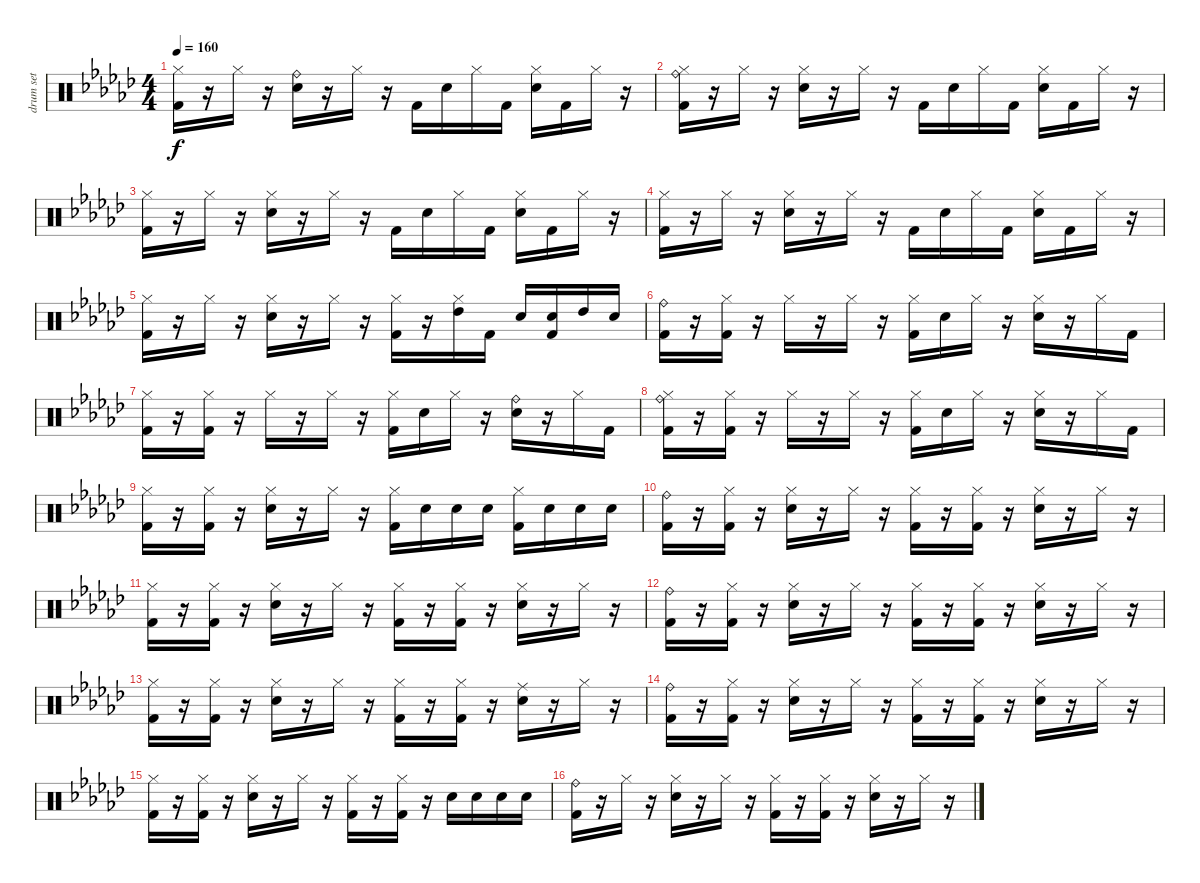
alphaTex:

\track ("drum set" "drum set") {instrument percussion}
\staff {score}
\articulation defaults
\ts (4 4)
\tempo 160
\clef neutral
\ks gb
("Hi-Hat (closed)" "Kick (hit) 2").16{dy f} r.16 "Hi-Hat (closed)".16 r.16 ("Ride (bell)" "Snare (hit) 2").16 r.16 "Hi-Hat (closed)".16 r.16 "Kick (hit) 2".16 "Snare (hit) 2".16 "Hi-Hat (closed)".16 "Kick (hit) 2".16 ("Hi-Hat (closed)" "Snare (hit) 2").16 "Kick (hit) 2".16 "Hi-Hat (closed)".16 r.16 |
("Hi-Hat (closed)" "Kick (hit) 2" "Ride (bell)").16 r.16 "Hi-Hat (closed)".16 r.16 ("Hi-Hat (closed)" "Snare (hit) 2").16 r.16 "Hi-Hat (closed)".16 r.16 "Kick (hit) 2".16 "Snare (hit) 2".16 "Hi-Hat (closed)".16 "Kick (hit) 2".16 ("Hi-Hat (closed)" "Snare (hit) 2").16 "Kick (hit) 2".16 "Hi-Hat (closed)".16 r.16 |
("Hi-Hat (closed)" "Kick (hit) 2").16 r.16 "Hi-Hat (closed)".16 r.16 ("Hi-Hat (closed)" "Snare (hit) 2").16 r.16 "Hi-Hat (closed)".16 r.16 "Kick (hit) 2".16 "Snare (hit) 2".16 "Hi-Hat (closed)".16 "Kick (hit) 2".16 ("Hi-Hat (closed)" "Snare (hit) 2").16 "Kick (hit) 2".16 "Hi-Hat (closed)".16 r.16 |
("Hi-Hat (closed)" "Kick (hit) 2").16 r.16 "Hi-Hat (closed)".16 r.16 ("Hi-Hat (closed)" "Snare (hit) 2").16 r.16 "Hi-Hat (closed)".16 r.16 "Kick (hit) 2".16 "Snare (hit) 2".16 "Hi-Hat (closed)".16 "Kick (hit) 2".16 ("Hi-Hat (closed)" "Snare (hit) 2").16 "Kick (hit) 2".16 "Hi-Hat (closed)".16 r.16 |
("Hi-Hat (closed)" "Kick (hit) 2").16 r.16 "Hi-Hat (closed)".16 r.16 ("Hi-Hat (closed)" "Snare (hit) 2").16 r.16 "Hi-Hat (closed)".16 r.16 ("Hi-Hat (closed)" "Kick (hit) 2").16 r.16 ("Hi-Hat (closed)" "High Tom (hit)").16 "Kick (hit) 2".16 "Snare (hit) 2".16 ("Snare (hit) 2" "Kick (hit) 2").16 "High Tom (hit)".16 "Snare (hit) 2".16 |
("Ride (bell)" "Kick (hit) 2").16 r.16 ("Hi-Hat (closed)" "Kick (hit) 2").16 r.16 "Hi-Hat (closed)".16 r.16 "Hi-Hat (closed)".16 r.16 ("Hi-Hat (closed)" "Kick (hit) 2").16 "Snare (hit) 2".16 "Hi-Hat (closed)".16 r.16 ("Hi-Hat (closed)" "Snare (hit) 2").16 r.16 "Hi-Hat (closed)".16 "Kick (hit) 2".16 |
("Hi-Hat (closed)" "Kick (hit) 2").16 r.16 ("Hi-Hat (closed)" "Kick (hit) 2").16 r.16 "Hi-Hat (closed)".16 r.16 "Hi-Hat (closed)".16 r.16 ("Hi-Hat (closed)" "Kick (hit) 2").16 "Snare (hit) 2".16 "Hi-Hat (closed)".16 r.16 ("Ride (bell)" "Snare (hit) 2").16 r.16 "Hi-Hat (closed)".16 "Kick (hit) 2".16 |
("Hi-Hat (closed)" "Kick (hit) 2" "Ride (bell)").16 r.16 ("Hi-Hat (closed)" "Kick (hit) 2").16 r.16 "Hi-Hat (closed)".16 r.16 "Hi-Hat (closed)".16 r.16 ("Hi-Hat (closed)" "Kick (hit) 2").16 "Snare (hit) 2".16 "Hi-Hat (closed)".16 r.16 ("Hi-Hat (closed)" "Snare (hit) 2").16 r.16 "Hi-Hat (closed)".16 "Kick (hit) 2".16 |
("Hi-Hat (closed)" "Kick (hit) 2").16 r.16 ("Hi-Hat (closed)" "Kick (hit) 2").16 r.16 ("Hi-Hat (closed)" "Snare (hit) 2").16 r.16 "Hi-Hat (closed)".16 r.16 ("Hi-Hat (closed)" "Kick (hit) 2").16 "Snare (hit) 2".16 "Snare (hit) 2".16 "Snare (hit) 2".16 ("Hi-Hat (closed)" "Kick (hit) 2").16 "Snare (hit) 2".16 "Snare (hit) 2".16 "Snare (hit) 2".16 |
("Ride (bell)" "Kick (hit) 2").16 r.16 ("Hi-Hat (closed)" "Kick (hit) 2").16 r.16 ("Hi-Hat (closed)" "Snare (hit) 2").16 r.16 "Hi-Hat (closed)".16 r.16 ("Hi-Hat (closed)" "Kick (hit) 2").16 r.16 ("Hi-Hat (closed)" "Kick (hit) 2").16 r.16 ("Hi-Hat (closed)" "Snare (hit) 2").16 r.16 "Hi-Hat (closed)".16 r.16 |
("Hi-Hat (closed)" "Kick (hit) 2").16 r.16 ("Hi-Hat (closed)" "Kick (hit) 2").16 r.16 ("Hi-Hat (closed)" "Snare (hit) 2").16 r.16 "Hi-Hat (closed)".16 r.16 ("Hi-Hat (closed)" "Kick (hit) 2").16 r.16 ("Hi-Hat (closed)" "Kick (hit) 2").16 r.16 ("Hi-Hat (closed)" "Snare (hit) 2").16 r.16 "Hi-Hat (closed)".16 r.16 |
("Ride (bell)" "Kick (hit) 2").16 r.16 ("Hi-Hat (closed)" "Kick (hit) 2").16 r.16 ("Hi-Hat (closed)" "Snare (hit) 2").16 r.16 "Hi-Hat (closed)".16 r.16 ("Hi-Hat (closed)" "Kick (hit) 2").16 r.16 ("Hi-Hat (closed)" "Kick (hit) 2").16 r.16 ("Hi-Hat (closed)" "Snare (hit) 2").16 r.16 "Hi-Hat (closed)".16 r.16 |
("Hi-Hat (closed)" "Kick (hit) 2").16 r.16 ("Hi-Hat (closed)" "Kick (hit) 2").16 r.16 ("Hi-Hat (closed)" "Snare (hit) 2").16 r.16 "Hi-Hat (closed)".16 r.16 ("Hi-Hat (closed)" "Kick (hit) 2").16 r.16 ("Hi-Hat (closed)" "Kick (hit) 2").16 r.16 ("Ride (middle)" "Snare (hit) 2").16 r.16 "Hi-Hat (closed)".16 r.16 |
("Ride (bell)" "Kick (hit) 2").16 r.16 ("Hi-Hat (closed)" "Kick (hit) 2").16 r.16 ("Hi-Hat (closed)" "Snare (hit) 2").16 r.16 "Hi-Hat (closed)".16 r.16 ("Hi-Hat (closed)" "Kick (hit) 2").16 r.16 ("Hi-Hat (closed)" "Kick (hit) 2").16 r.16 ("Hi-Hat (closed)" "Snare (hit) 2").16 r.16 "Hi-Hat (closed)".16 r.16 |
("Hi-Hat (closed)" "Kick (hit) 2").16 r.16 ("Hi-Hat (closed)" "Kick (hit) 2").16 r.16 ("Hi-Hat (closed)" "Snare (hit) 2").16 r.16 "Hi-Hat (closed)".16 r.16 ("Hi-Hat (closed)" "Kick (hit) 2").16 r.16 ("Hi-Hat (closed)" "Kick (hit) 2").16 r.16 "Snare (hit) 2".16 "Snare (hit) 2".16 "Snare (hit) 2".16 "Snare (hit) 2".16 |
("Ride (bell)" "Kick (hit) 2").16 r.16 "Hi-Hat (closed)".16 r.16 ("Hi-Hat (closed)" "Snare (hit) 2").16 r.16 "Hi-Hat (closed)".16 r.16 ("Hi-Hat (closed)" "Kick (hit) 2").16 r.16 ("Hi-Hat (closed)" "Kick (hit) 2").16 r.16 ("Hi-Hat (closed)" "Snare (hit) 2").16 r.16 "Hi-Hat (closed)".16 r.16
